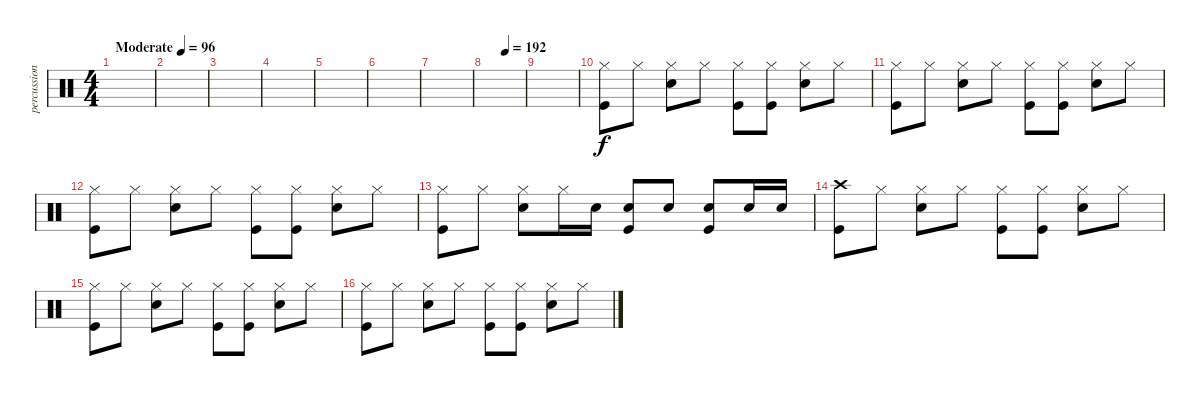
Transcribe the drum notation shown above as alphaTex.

\track ("percussion" "percussion") {instrument percussion}
\staff {score}
\articulation defaults
\ts (4 4)
\tempo (96 "Moderate")
\clef neutral
\ks c
|
|
|
|
|
|
|
\tempo (192 0.5)
|
|
("Hi-Hat (closed)" "Kick (hit)").8 "Hi-Hat (closed)".8 ("Snare (hit) 2" "Hi-Hat (closed)").8 "Hi-Hat (closed)".8 ("Hi-Hat (closed)" "Kick (hit)").8 ("Kick (hit)" "Hi-Hat (closed)").8 ("Snare (hit) 2" "Hi-Hat (closed)").8 "Hi-Hat (closed)".8 |
("Hi-Hat (closed)" "Kick (hit)").8 "Hi-Hat (closed)".8 ("Snare (hit) 2" "Hi-Hat (closed)").8 "Hi-Hat (closed)".8 ("Hi-Hat (closed)" "Kick (hit)").8 ("Kick (hit)" "Hi-Hat (closed)").8 ("Snare (hit) 2" "Hi-Hat (closed)").8 "Hi-Hat (closed)".8 |
("Hi-Hat (closed)" "Kick (hit)").8 "Hi-Hat (closed)".8 ("Snare (hit) 2" "Hi-Hat (closed)").8 "Hi-Hat (closed)".8 ("Hi-Hat (closed)" "Kick (hit)").8 ("Kick (hit)" "Hi-Hat (closed)").8 ("Snare (hit) 2" "Hi-Hat (closed)").8 "Hi-Hat (closed)".8 |
("Hi-Hat (closed)" "Kick (hit)").8 "Hi-Hat (closed)".8 ("Snare (hit) 2" "Hi-Hat (closed)").8 "Hi-Hat (closed)".16 "Snare (hit) 2".16 ("Snare (hit) 2" "Kick (hit)").8 "Snare (hit) 2".8 ("Snare (hit) 2" "Kick (hit)").8 "Snare (hit) 2".16 "Snare (hit) 2".16 |
("Crash high (hit)" "Kick (hit)").8 "Hi-Hat (closed)".8 ("Snare (hit) 2" "Hi-Hat (closed)").8 "Hi-Hat (closed)".8 ("Hi-Hat (closed)" "Kick (hit)").8 ("Kick (hit)" "Hi-Hat (closed)").8 ("Snare (hit) 2" "Hi-Hat (closed)").8 "Hi-Hat (closed)".8 |
("Hi-Hat (closed)" "Kick (hit)").8 "Hi-Hat (closed)".8 ("Snare (hit) 2" "Hi-Hat (closed)").8 "Hi-Hat (closed)".8 ("Hi-Hat (closed)" "Kick (hit)").8 ("Kick (hit)" "Hi-Hat (closed)").8 ("Snare (hit) 2" "Hi-Hat (closed)").8 "Hi-Hat (closed)".8 |
("Hi-Hat (closed)" "Kick (hit)").8 "Hi-Hat (closed)".8 ("Snare (hit) 2" "Hi-Hat (closed)").8 "Hi-Hat (closed)".8 ("Hi-Hat (closed)" "Kick (hit)").8 ("Kick (hit)" "Hi-Hat (closed)").8 ("Snare (hit) 2" "Hi-Hat (closed)").8 "Hi-Hat (closed)".8
